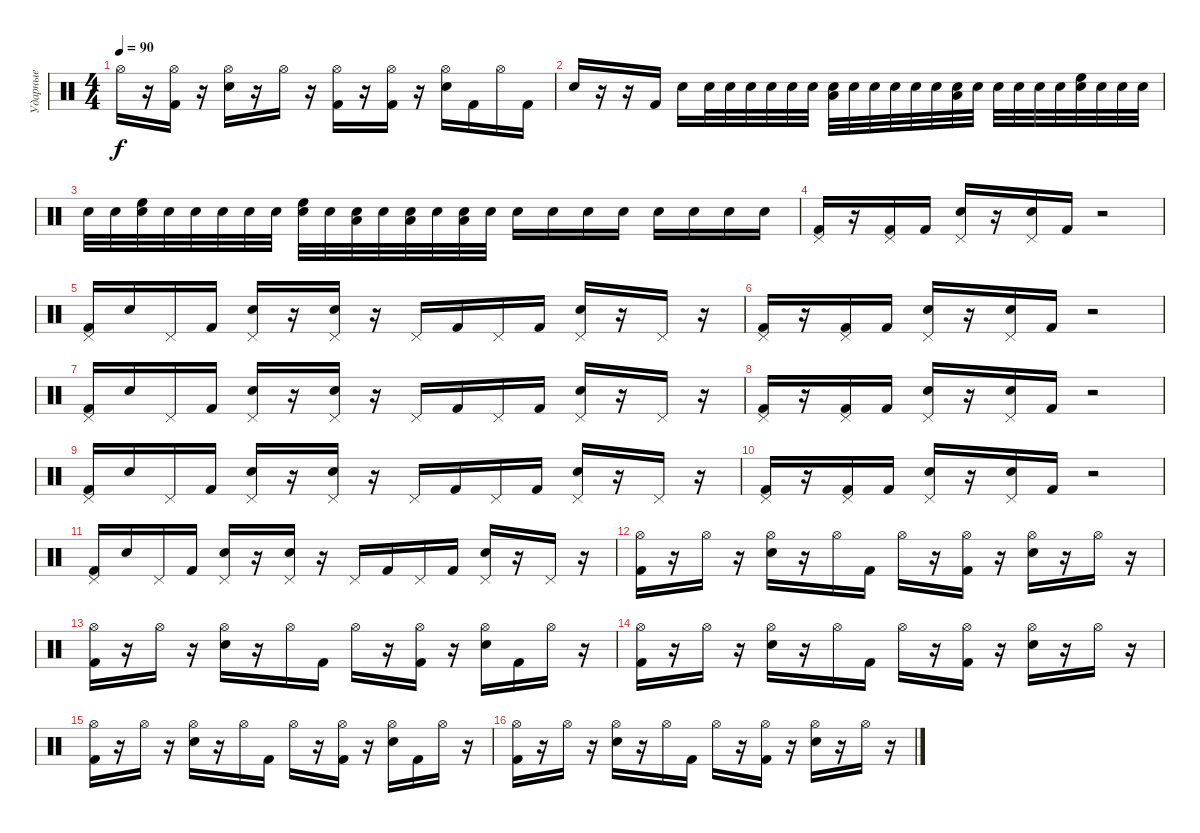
\track ("Ударные" "Ударные") {instrument percussion}
\staff {score}
\articulation defaults
\ts (4 4)
\tempo 90
\clef neutral
\ks c "Hi-Hat (open)".16{dy f}
r.16 ("Hi-Hat (open)" "Kick (hit) 2").16 r.16 ("Hi-Hat (open)" "Snare (hit) 2").16 r.16 "Hi-Hat (open)".16 r.16 ("Hi-Hat (open)" "Kick (hit) 2").16 r.16 ("Hi-Hat (open)" "Kick (hit) 2").16 r.16 ("Hi-Hat (open)" "Snare (hit) 2").16 "Kick (hit) 2".16 "Hi-Hat (open)".16 "Kick (hit) 2".16 |
"Snare (hit) 2".16 r.16 r.16 "Kick (hit) 2".16 "Snare (hit) 2".16 "Snare (hit) 2".32 "Snare (hit) 2".32 "Snare (hit) 2".32 "Snare (hit) 2".32 "Snare (hit) 2".32 "Snare (hit) 2".32 ("Snare (hit) 2" "Low Tom (hit)").32 "Snare (hit) 2".32 "Snare (hit) 2".32 "Snare (hit) 2".32 "Snare (hit) 2".32 "Snare (hit) 2".32 ("Snare (hit) 2" "Low Tom (hit)").32 "Snare (hit) 2".32 "Snare (hit) 2".32 "Snare (hit) 2".32 "Snare (hit) 2".32 "Snare (hit) 2".32 ("Snare (hit) 2" "High Floor Tom (hit)").32 "Snare (hit) 2".32 "Snare (hit) 2".32 "Snare (hit) 2".32 |
"Snare (hit) 2".32 "Snare (hit) 2".32 ("Snare (hit) 2" "High Floor Tom (hit)").32 "Snare (hit) 2".32 "Snare (hit) 2".32 "Snare (hit) 2".32 "Snare (hit) 2".32 "Snare (hit) 2".32 ("Snare (hit) 2" "High Floor Tom (hit)").32 "Snare (hit) 2".32 ("Snare (hit) 2" "Low Tom (hit)").32 "Snare (hit) 2".32 ("Snare (hit) 2" "Low Tom (hit)").32 "Snare (hit) 2".32 ("Snare (hit) 2" "Low Tom (hit)").32 "Snare (hit) 2".32 "Snare (hit) 2".16 "Snare (hit) 2".16 "Snare (hit) 2".16 "Snare (hit) 2".16 "Snare (hit) 2".16 "Snare (hit) 2".16 "Snare (hit) 2".16 "Snare (hit) 2".16 |
("Pedal Hi-Hat (hit)" "Kick (hit) 2").16 r.16 ("Pedal Hi-Hat (hit)" "Kick (hit) 2").16 "Kick (hit) 2".16 ("Pedal Hi-Hat (hit)" "Snare (hit) 2").16 r.16 ("Pedal Hi-Hat (hit)" "Snare (hit) 2").16 "Kick (hit) 2".16 r.2 |
("Pedal Hi-Hat (hit)" "Kick (hit) 2").16 "Snare (hit) 2".16 "Pedal Hi-Hat (hit)".16 "Kick (hit) 2".16 ("Pedal Hi-Hat (hit)" "Snare (hit) 2").16 r.16 ("Pedal Hi-Hat (hit)" "Snare (hit) 2").16 r.16 "Pedal Hi-Hat (hit)".16 "Kick (hit) 2".16 "Pedal Hi-Hat (hit)".16 "Kick (hit) 2".16 ("Pedal Hi-Hat (hit)" "Snare (hit) 2").16 r.16 "Pedal Hi-Hat (hit)".16 r.16 |
("Pedal Hi-Hat (hit)" "Kick (hit) 2").16 r.16 ("Pedal Hi-Hat (hit)" "Kick (hit) 2").16 "Kick (hit) 2".16 ("Pedal Hi-Hat (hit)" "Snare (hit) 2").16 r.16 ("Pedal Hi-Hat (hit)" "Snare (hit) 2").16 "Kick (hit) 2".16 r.2 |
("Pedal Hi-Hat (hit)" "Kick (hit) 2").16 "Snare (hit) 2".16 "Pedal Hi-Hat (hit)".16 "Kick (hit) 2".16 ("Pedal Hi-Hat (hit)" "Snare (hit) 2").16 r.16 ("Pedal Hi-Hat (hit)" "Snare (hit) 2").16 r.16 "Pedal Hi-Hat (hit)".16 "Kick (hit) 2".16 "Pedal Hi-Hat (hit)".16 "Kick (hit) 2".16 ("Pedal Hi-Hat (hit)" "Snare (hit) 2").16 r.16 "Pedal Hi-Hat (hit)".16 r.16 |
("Pedal Hi-Hat (hit)" "Kick (hit) 2").16 r.16 ("Pedal Hi-Hat (hit)" "Kick (hit) 2").16 "Kick (hit) 2".16 ("Pedal Hi-Hat (hit)" "Snare (hit) 2").16 r.16 ("Pedal Hi-Hat (hit)" "Snare (hit) 2").16 "Kick (hit) 2".16 r.2 |
("Pedal Hi-Hat (hit)" "Kick (hit) 2").16 "Snare (hit) 2".16 "Pedal Hi-Hat (hit)".16 "Kick (hit) 2".16 ("Pedal Hi-Hat (hit)" "Snare (hit) 2").16 r.16 ("Pedal Hi-Hat (hit)" "Snare (hit) 2").16 r.16 "Pedal Hi-Hat (hit)".16 "Kick (hit) 2".16 "Pedal Hi-Hat (hit)".16 "Kick (hit) 2".16 ("Pedal Hi-Hat (hit)" "Snare (hit) 2").16 r.16 "Pedal Hi-Hat (hit)".16 r.16 |
("Pedal Hi-Hat (hit)" "Kick (hit) 2").16 r.16 ("Pedal Hi-Hat (hit)" "Kick (hit) 2").16 "Kick (hit) 2".16 ("Pedal Hi-Hat (hit)" "Snare (hit) 2").16 r.16 ("Pedal Hi-Hat (hit)" "Snare (hit) 2").16 "Kick (hit) 2".16 r.2 |
("Pedal Hi-Hat (hit)" "Kick (hit) 2").16 "Snare (hit) 2".16 "Pedal Hi-Hat (hit)".16 "Kick (hit) 2".16 ("Pedal Hi-Hat (hit)" "Snare (hit) 2").16 r.16 ("Pedal Hi-Hat (hit)" "Snare (hit) 2").16 r.16 "Pedal Hi-Hat (hit)".16 "Kick (hit) 2".16 "Pedal Hi-Hat (hit)".16 "Kick (hit) 2".16 ("Pedal Hi-Hat (hit)" "Snare (hit) 2").16 r.16 "Pedal Hi-Hat (hit)".16 r.16 |
("Hi-Hat (open)" "Kick (hit) 2").16 r.16 "Hi-Hat (open)".16 r.16 ("Hi-Hat (open)" "Snare (hit) 2").16 r.16 "Hi-Hat (open)".16 "Kick (hit) 2".16 "Hi-Hat (open)".16 r.16 ("Hi-Hat (open)" "Kick (hit) 2").16 r.16 ("Hi-Hat (open)" "Snare (hit) 2").16 r.16 "Hi-Hat (open)".16 r.16 |
("Hi-Hat (open)" "Kick (hit) 2").16 r.16 "Hi-Hat (open)".16 r.16 ("Hi-Hat (open)" "Snare (hit) 2").16 r.16 "Hi-Hat (open)".16 "Kick (hit) 2".16 "Hi-Hat (open)".16 r.16 ("Hi-Hat (open)" "Kick (hit) 2").16 r.16 ("Hi-Hat (open)" "Snare (hit) 2").16 "Kick (hit) 2".16 "Hi-Hat (open)".16 r.16 |
("Hi-Hat (open)" "Kick (hit) 2").16 r.16 "Hi-Hat (open)".16 r.16 ("Hi-Hat (open)" "Snare (hit) 2").16 r.16 "Hi-Hat (open)".16 "Kick (hit) 2".16 "Hi-Hat (open)".16 r.16 ("Hi-Hat (open)" "Kick (hit) 2").16 r.16 ("Hi-Hat (open)" "Snare (hit) 2").16 r.16 "Hi-Hat (open)".16 r.16 |
("Hi-Hat (open)" "Kick (hit) 2").16 r.16 "Hi-Hat (open)".16 r.16 ("Hi-Hat (open)" "Snare (hit) 2").16 r.16 "Hi-Hat (open)".16 "Kick (hit) 2".16 "Hi-Hat (open)".16 r.16 ("Hi-Hat (open)" "Kick (hit) 2").16 r.16 ("Hi-Hat (open)" "Snare (hit) 2").16 "Kick (hit) 2".16 "Hi-Hat (open)".16 r.16 |
("Hi-Hat (open)" "Kick (hit) 2").16 r.16 "Hi-Hat (open)".16 r.16 ("Hi-Hat (open)" "Snare (hit) 2").16 r.16 "Hi-Hat (open)".16 "Kick (hit) 2".16 "Hi-Hat (open)".16 r.16 ("Hi-Hat (open)" "Kick (hit) 2").16 r.16 ("Hi-Hat (open)" "Snare (hit) 2").16 r.16 "Hi-Hat (open)".16 r.16
